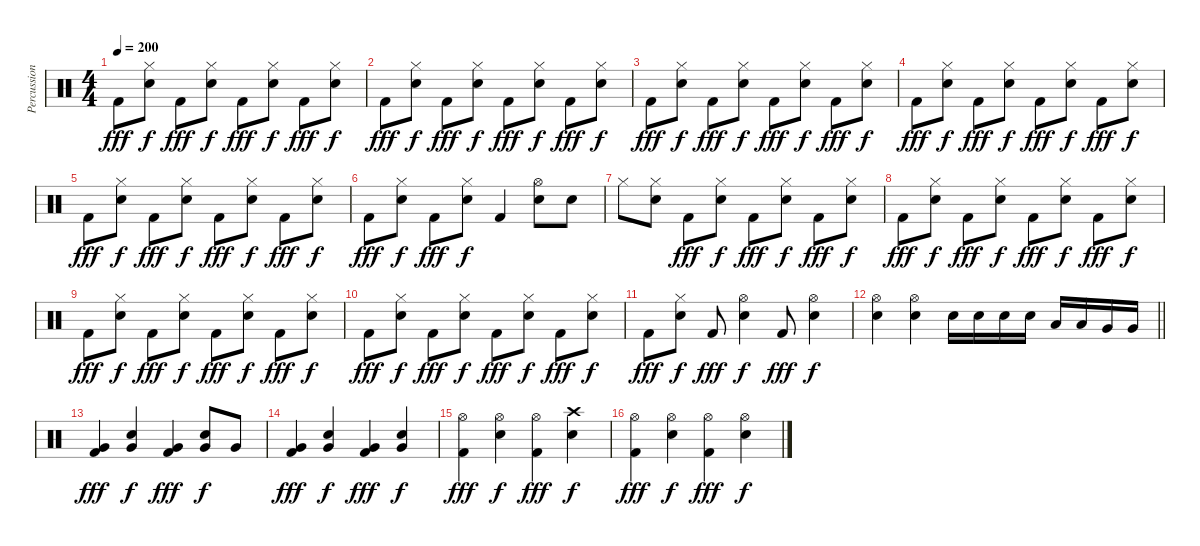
\track ("Percussion" "Percussion") {instrument percussion}
\staff {score}
\articulation defaults
\ts (4 4)
\tempo 200
\clef neutral
\ks c "Kick (hit) 2".8{dy fff}
("Hi-Hat (closed)" "Electric Snare (hit)").8{dy f} "Kick (hit) 2".8{dy fff} ("Hi-Hat (closed)" "Electric Snare (hit)").8{dy f} "Kick (hit) 2".8{dy fff} ("Hi-Hat (closed)" "Electric Snare (hit)").8{dy f} "Kick (hit) 2".8{dy fff} ("Hi-Hat (closed)" "Electric Snare (hit)").8{dy f} |
"Kick (hit) 2".8{dy fff} ("Hi-Hat (closed)" "Electric Snare (hit)").8{dy f} "Kick (hit) 2".8{dy fff} ("Hi-Hat (closed)" "Electric Snare (hit)").8{dy f} "Kick (hit) 2".8{dy fff} ("Hi-Hat (closed)" "Electric Snare (hit)").8{dy f} "Kick (hit) 2".8{dy fff} ("Hi-Hat (closed)" "Electric Snare (hit)").8{dy f} |
"Kick (hit) 2".8{dy fff} ("Hi-Hat (closed)" "Electric Snare (hit)").8{dy f} "Kick (hit) 2".8{dy fff} ("Hi-Hat (closed)" "Electric Snare (hit)").8{dy f} "Kick (hit) 2".8{dy fff} ("Hi-Hat (closed)" "Electric Snare (hit)").8{dy f} "Kick (hit) 2".8{dy fff} ("Hi-Hat (closed)" "Electric Snare (hit)").8{dy f} |
"Kick (hit) 2".8{dy fff} ("Hi-Hat (closed)" "Electric Snare (hit)").8{dy f} "Kick (hit) 2".8{dy fff} ("Hi-Hat (closed)" "Electric Snare (hit)").8{dy f} "Kick (hit) 2".8{dy fff} ("Hi-Hat (closed)" "Electric Snare (hit)").8{dy f} "Kick (hit) 2".8{dy fff} ("Hi-Hat (closed)" "Electric Snare (hit)").8{dy f} |
"Kick (hit) 2".8{dy fff} ("Hi-Hat (closed)" "Electric Snare (hit)").8{dy f} "Kick (hit) 2".8{dy fff} ("Hi-Hat (closed)" "Electric Snare (hit)").8{dy f} "Kick (hit) 2".8{dy fff} ("Hi-Hat (closed)" "Electric Snare (hit)").8{dy f} "Kick (hit) 2".8{dy fff} ("Hi-Hat (closed)" "Electric Snare (hit)").8{dy f} |
"Kick (hit) 2".8{dy fff} ("Hi-Hat (closed)" "Electric Snare (hit)").8{dy f} "Kick (hit) 2".8{dy fff} ("Hi-Hat (closed)" "Electric Snare (hit)").8{dy f} "Kick (hit) 2".4 ("Hi-Hat (open)" "Electric Snare (hit)").8 "Electric Snare (hit)".8 |
"Hi-Hat (closed)".8 ("Hi-Hat (closed)" "Electric Snare (hit)").8 "Kick (hit) 2".8{dy fff} ("Hi-Hat (closed)" "Electric Snare (hit)").8{dy f} "Kick (hit) 2".8{dy fff} ("Hi-Hat (closed)" "Electric Snare (hit)").8{dy f} "Kick (hit) 2".8{dy fff} ("Hi-Hat (closed)" "Electric Snare (hit)").8{dy f} |
"Kick (hit) 2".8{dy fff} ("Hi-Hat (closed)" "Electric Snare (hit)").8{dy f} "Kick (hit) 2".8{dy fff} ("Hi-Hat (closed)" "Electric Snare (hit)").8{dy f} "Kick (hit) 2".8{dy fff} ("Hi-Hat (closed)" "Electric Snare (hit)").8{dy f} "Kick (hit) 2".8{dy fff} ("Hi-Hat (closed)" "Electric Snare (hit)").8{dy f} |
"Kick (hit) 2".8{dy fff} ("Hi-Hat (closed)" "Electric Snare (hit)").8{dy f} "Kick (hit) 2".8{dy fff} ("Hi-Hat (closed)" "Electric Snare (hit)").8{dy f} "Kick (hit) 2".8{dy fff} ("Hi-Hat (closed)" "Electric Snare (hit)").8{dy f} "Kick (hit) 2".8{dy fff} ("Hi-Hat (closed)" "Electric Snare (hit)").8{dy f} |
"Kick (hit) 2".8{dy fff} ("Hi-Hat (closed)" "Electric Snare (hit)").8{dy f} "Kick (hit) 2".8{dy fff} ("Hi-Hat (closed)" "Electric Snare (hit)").8{dy f} "Kick (hit) 2".8{dy fff} ("Hi-Hat (closed)" "Electric Snare (hit)").8{dy f} "Kick (hit) 2".8{dy fff} ("Hi-Hat (closed)" "Electric Snare (hit)").8{dy f} |
"Kick (hit) 2".8{dy fff} ("Hi-Hat (closed)" "Electric Snare (hit)").8{dy f} "Kick (hit) 2".8{dy fff} ("Hi-Hat (open)" "Electric Snare (hit)").4{dy f} "Kick (hit) 2".8{dy fff} ("Hi-Hat (open)" "Electric Snare (hit)").4{dy f} |
\barLineRight lightlight
("Hi-Hat (open)" "Electric Snare (hit)").4 ("Hi-Hat (open)" "Electric Snare (hit)").4 "Electric Snare (hit)".16 "Electric Snare (hit)".16 "Electric Snare (hit)".16 "Electric Snare (hit)".16 "Low Tom (hit)".16 "Low Tom (hit)".16 "Very Low Tom (hit)".16 "Very Low Tom (hit)".16 |
("Very Low Tom (hit)" "Kick (hit) 2").4{dy fff} ("Very Low Tom (hit)" "Electric Snare (hit)").4{dy f} ("Very Low Tom (hit)" "Kick (hit) 2").4{dy fff} ("Very Low Tom (hit)" "Electric Snare (hit)").8{dy f} "Very Low Tom (hit)".8 |
("Very Low Tom (hit)" "Kick (hit) 2").4{dy fff} ("Very Low Tom (hit)" "Electric Snare (hit)").4{dy f} ("Very Low Tom (hit)" "Kick (hit) 2").4{dy fff} ("Very Low Tom (hit)" "Electric Snare (hit)").4{dy f} |
("Hi-Hat (open)" "Kick (hit) 2").4{dy fff} ("Hi-Hat (open)" "Electric Snare (hit)").4{dy f} ("Hi-Hat (open)" "Kick (hit) 2").4{dy fff} ("Crash high (hit)" "Electric Snare (hit)").4{dy f} |
("Hi-Hat (open)" "Kick (hit) 2").4{dy fff} ("Hi-Hat (open)" "Electric Snare (hit)").4{dy f} ("Hi-Hat (open)" "Kick (hit) 2").4{dy fff} ("Hi-Hat (open)" "Electric Snare (hit)").4{dy f}
